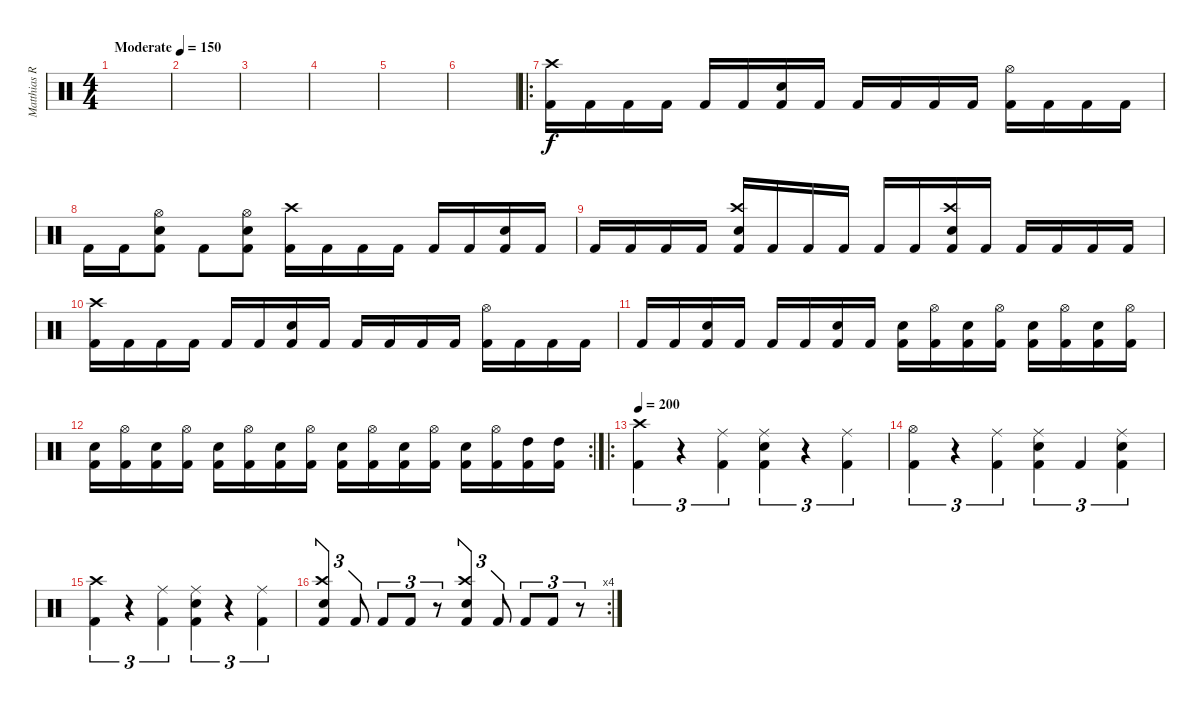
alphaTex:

\track ("Matthias Rodig" "Matthias R") {instrument percussion}
\staff {score}
\articulation defaults
\ts (4 4)
\tempo (150 "Moderate")
\clef neutral
\ks c
|
|
|
|
|
|
\ro
("Kick (hit) 2" "Crash high (hit)").16 "Kick (hit) 2".16 "Kick (hit) 2".16 "Kick (hit) 2".16 "Kick (hit) 2".16 "Kick (hit) 2".16 ("Kick (hit) 2" "Snare (hit) 2").16 "Kick (hit) 2".16 "Kick (hit) 2".16 "Kick (hit) 2".16 "Kick (hit) 2".16 "Kick (hit) 2".16 ("Kick (hit) 2" "Hi-Hat (open)").16 "Kick (hit) 2".16 "Kick (hit) 2".16 "Kick (hit) 2".16 |
"Kick (hit) 2".16 "Kick (hit) 2".16 ("Kick (hit) 2" "Snare (hit) 2" "Hi-Hat (open)").8 "Kick (hit) 2".8 ("Kick (hit) 2" "Snare (hit) 2" "Hi-Hat (open)").8 ("Kick (hit) 2" "Crash high (hit)").16 "Kick (hit) 2".16 "Kick (hit) 2".16 "Kick (hit) 2".16 "Kick (hit) 2".16 "Kick (hit) 2".16 ("Kick (hit) 2" "Snare (hit) 2").16 "Kick (hit) 2".16 |
"Kick (hit) 2".16 "Kick (hit) 2".16 "Kick (hit) 2".16 "Kick (hit) 2".16 ("Kick (hit) 2" "Snare (hit) 2" "Crash high (hit)").16 "Kick (hit) 2".16 "Kick (hit) 2".16 "Kick (hit) 2".16 "Kick (hit) 2".16 "Kick (hit) 2".16 ("Kick (hit) 2" "Snare (hit) 2" "Crash high (hit)").16 "Kick (hit) 2".16 "Kick (hit) 2".16 "Kick (hit) 2".16 "Kick (hit) 2".16 "Kick (hit) 2".16 |
("Kick (hit) 2" "Crash high (hit)").16 "Kick (hit) 2".16 "Kick (hit) 2".16 "Kick (hit) 2".16 "Kick (hit) 2".16 "Kick (hit) 2".16 ("Kick (hit) 2" "Snare (hit) 2").16 "Kick (hit) 2".16 "Kick (hit) 2".16 "Kick (hit) 2".16 "Kick (hit) 2".16 "Kick (hit) 2".16 ("Kick (hit) 2" "Hi-Hat (open)").16 "Kick (hit) 2".16 "Kick (hit) 2".16 "Kick (hit) 2".16 |
"Kick (hit) 2".16 "Kick (hit) 2".16 ("Kick (hit) 2" "Snare (hit) 2").16 "Kick (hit) 2".16 "Kick (hit) 2".16 "Kick (hit) 2".16 ("Kick (hit) 2" "Snare (hit) 2").16 "Kick (hit) 2".16 ("Kick (hit) 2" "Snare (hit) 2").16 ("Kick (hit) 2" "Hi-Hat (open)").16 ("Kick (hit) 2" "Snare (hit) 2").16 ("Kick (hit) 2" "Hi-Hat (open)").16 ("Kick (hit) 2" "Snare (hit) 2").16 ("Kick (hit) 2" "Hi-Hat (open)").16 ("Kick (hit) 2" "Snare (hit) 2").16 ("Kick (hit) 2" "Hi-Hat (open)").16 |
\rc 2
("Kick (hit) 2" "Snare (hit) 2").16 ("Kick (hit) 2" "Hi-Hat (open)").16 ("Kick (hit) 2" "Snare (hit) 2").16 ("Kick (hit) 2" "Hi-Hat (open)").16 ("Kick (hit) 2" "Snare (hit) 2").16 ("Kick (hit) 2" "Hi-Hat (open)").16 ("Kick (hit) 2" "Snare (hit) 2").16 ("Kick (hit) 2" "Hi-Hat (open)").16 ("Kick (hit) 2" "Snare (hit) 2").16 ("Kick (hit) 2" "Hi-Hat (open)").16 ("Kick (hit) 2" "Snare (hit) 2").16 ("Kick (hit) 2" "Hi-Hat (open)").16 ("Kick (hit) 2" "Snare (hit) 2").16 ("Kick (hit) 2" "Hi-Hat (open)").16 ("Kick (hit) 2" "High Tom (hit)").16 ("Kick (hit) 2" "High Tom (hit)").16 |
\ro
\tempo 200
("Kick (hit) 2" "Crash high (hit)").4{tu (3 2)} r.4{tu (3 2)} ("Kick (hit) 2" "Ride (middle)").4{tu (3 2)} ("Kick (hit) 2" "Snare (hit) 2" "Ride (middle)").4{tu (3 2)} r.4{tu (3 2)} ("Kick (hit) 2" "Ride (middle)").4{tu (3 2)} |
("Kick (hit) 2" "Hi-Hat (open)").4{tu (3 2)} r.4{tu (3 2)} ("Kick (hit) 2" "Ride (middle)").4{tu (3 2)} ("Kick (hit) 2" "Snare (hit) 2" "Ride (middle)").4{tu (3 2)} "Kick (hit) 2".4{tu (3 2)} ("Kick (hit) 2" "Snare (hit) 2" "Ride (middle)").4{tu (3 2)} |
("Kick (hit) 2" "Crash high (hit)").4{tu (3 2)} r.4{tu (3 2)} ("Kick (hit) 2" "Ride (middle)").4{tu (3 2)} ("Kick (hit) 2" "Snare (hit) 2" "Ride (middle)").4{tu (3 2)} r.4{tu (3 2)} ("Kick (hit) 2" "Ride (middle)").4{tu (3 2)} |
\rc 4
("Kick (hit) 2" "Snare (hit) 2" "Crash high (hit)").4{tu (3 2)} "Kick (hit) 2".8{tu (3 2)} "Kick (hit) 2".8{tu (3 2)} "Kick (hit) 2".8{tu (3 2)} r.8{tu (3 2)} ("Kick (hit) 2" "Snare (hit) 2" "Crash high (hit)").4{tu (3 2)} "Kick (hit) 2".8{tu (3 2)} "Kick (hit) 2".8{tu (3 2)} "Kick (hit) 2".8{tu (3 2)} r.8{tu (3 2)}
